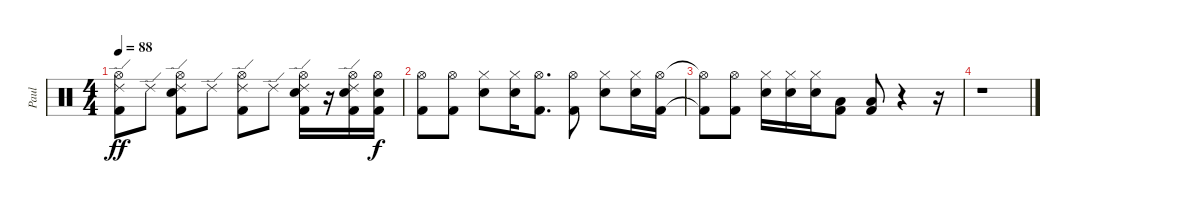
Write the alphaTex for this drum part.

\track ("Paul" "Paul") {instrument percussion}
\staff {score}
\articulation defaults
\ts (4 4)
\tempo 88
\clef neutral
\ks c
("Hi-Hat (open)" "Ride (edge) 2" "Kick (hit) 2").8{dy ff} "Ride (edge) 2".8 ("Snare (hit) 2" "Hi-Hat (open)" "Ride (edge) 2" "Kick (hit) 2").8 "Ride (edge) 2".8 ("Hi-Hat (open)" "Ride (edge) 2" "Kick (hit) 2").8 "Ride (edge) 2".8 ("Snare (hit) 2" "Hi-Hat (open)" "Ride (edge) 2" "Kick (hit) 2").16 r.16 ("Snare (hit) 2" "Hi-Hat (open)" "Ride (edge) 2" "Kick (hit) 2").16 ("Snare (hit) 2" "Hi-Hat (open)" "Kick (hit) 2").16{dy f} |
("Hi-Hat (open)" "Kick (hit) 2").8 ("Hi-Hat (open)" "Kick (hit) 2").8 ("Snare (hit) 2" "Hi-Hat (closed)").8 ("Snare (hit) 2" "Hi-Hat (closed)").16 ("Hi-Hat (open)" "Kick (hit) 2").8{d} ("Hi-Hat (open)" "Kick (hit) 2").8 ("Snare (hit) 2" "Hi-Hat (closed)").8 ("Snare (hit) 2" "Hi-Hat (closed)").16 ("Hi-Hat (open)" "Kick (hit) 2").16 |
("Hi-Hat (open)"{t} "Kick (hit) 2"{t}).8 ("Hi-Hat (open)" "Kick (hit) 2").8 ("Snare (hit) 2" "Hi-Hat (closed)").16 ("Snare (hit) 2" "Hi-Hat (closed)").16 ("Snare (hit) 2" "Hi-Hat (closed)").16 ("Low Floor Tom (hit)" "Kick (hit) 2").8 ("Low Floor Tom (hit)" "Kick (hit) 2").8 r.4 r.16 |
r.1
